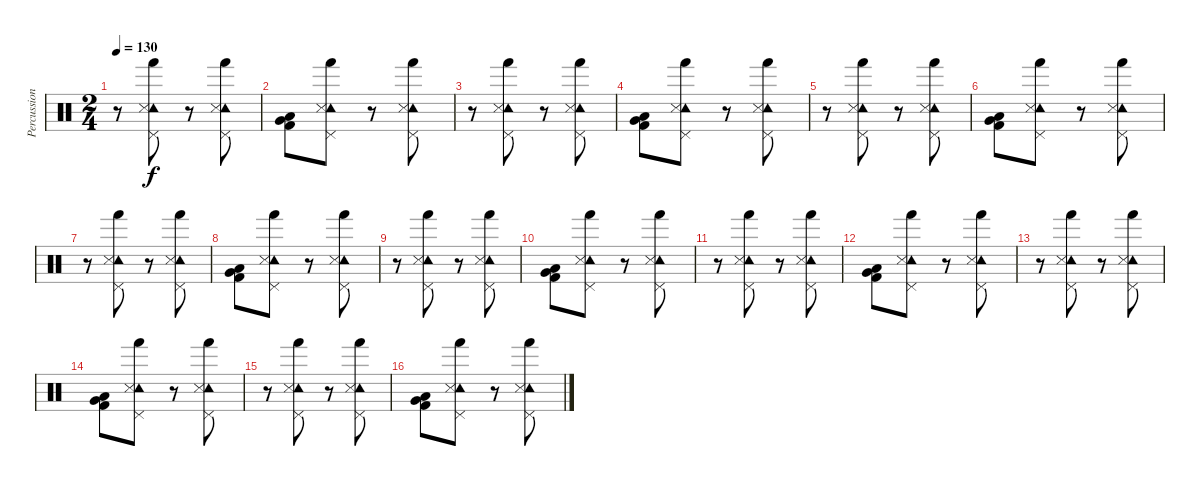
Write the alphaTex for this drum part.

\track ("Percussion" "Percussion") {instrument percussion}
\staff {score}
\articulation defaults
\ts (2 4)
\tempo 130
\clef neutral
\ks c
r.8{dy f} ("Tambourine (hit)" "Snare (side stick) 3" "Pedal Hi-Hat (hit)" "Hand (hit)").8 r.8 ("Tambourine (hit)" "Snare (side stick) 3" "Pedal Hi-Hat (hit)" "Hand (hit)").8 |
("Very Low Tom (hit)" "Low Tom (hit)" "Kick (hit) 2").8 ("Tambourine (hit)" "Snare (side stick) 3" "Pedal Hi-Hat (hit)" "Hand (hit)").8 r.8 ("Tambourine (hit)" "Snare (side stick) 3" "Pedal Hi-Hat (hit)" "Hand (hit)").8 |
r.8 ("Tambourine (hit)" "Snare (side stick) 3" "Pedal Hi-Hat (hit)" "Hand (hit)").8 r.8 ("Tambourine (hit)" "Snare (side stick) 3" "Pedal Hi-Hat (hit)" "Hand (hit)").8 |
("Very Low Tom (hit)" "Low Tom (hit)" "Kick (hit) 2").8 ("Tambourine (hit)" "Snare (side stick) 3" "Pedal Hi-Hat (hit)" "Hand (hit)").8 r.8 ("Tambourine (hit)" "Snare (side stick) 3" "Pedal Hi-Hat (hit)" "Hand (hit)").8 |
r.8 ("Tambourine (hit)" "Snare (side stick) 3" "Pedal Hi-Hat (hit)" "Hand (hit)").8 r.8 ("Tambourine (hit)" "Snare (side stick) 3" "Pedal Hi-Hat (hit)" "Hand (hit)").8 |
("Very Low Tom (hit)" "Low Tom (hit)" "Kick (hit) 2").8 ("Tambourine (hit)" "Snare (side stick) 3" "Pedal Hi-Hat (hit)" "Hand (hit)").8 r.8 ("Tambourine (hit)" "Snare (side stick) 3" "Pedal Hi-Hat (hit)" "Hand (hit)").8 |
r.8 ("Tambourine (hit)" "Snare (side stick) 3" "Pedal Hi-Hat (hit)" "Hand (hit)").8 r.8 ("Tambourine (hit)" "Snare (side stick) 3" "Pedal Hi-Hat (hit)" "Hand (hit)").8 |
("Very Low Tom (hit)" "Low Tom (hit)" "Kick (hit) 2").8 ("Tambourine (hit)" "Snare (side stick) 3" "Pedal Hi-Hat (hit)" "Hand (hit)").8 r.8 ("Tambourine (hit)" "Snare (side stick) 3" "Pedal Hi-Hat (hit)" "Hand (hit)").8 |
r.8 ("Tambourine (hit)" "Snare (side stick) 3" "Pedal Hi-Hat (hit)" "Hand (hit)").8 r.8 ("Tambourine (hit)" "Snare (side stick) 3" "Pedal Hi-Hat (hit)" "Hand (hit)").8 |
("Very Low Tom (hit)" "Low Tom (hit)" "Kick (hit) 2").8 ("Tambourine (hit)" "Snare (side stick) 3" "Pedal Hi-Hat (hit)" "Hand (hit)").8 r.8 ("Tambourine (hit)" "Snare (side stick) 3" "Pedal Hi-Hat (hit)" "Hand (hit)").8 |
r.8 ("Tambourine (hit)" "Snare (side stick) 3" "Pedal Hi-Hat (hit)" "Hand (hit)").8 r.8 ("Tambourine (hit)" "Snare (side stick) 3" "Pedal Hi-Hat (hit)" "Hand (hit)").8 |
("Very Low Tom (hit)" "Low Tom (hit)" "Kick (hit) 2").8 ("Tambourine (hit)" "Snare (side stick) 3" "Pedal Hi-Hat (hit)" "Hand (hit)").8 r.8 ("Tambourine (hit)" "Snare (side stick) 3" "Pedal Hi-Hat (hit)" "Hand (hit)").8 |
r.8 ("Tambourine (hit)" "Snare (side stick) 3" "Pedal Hi-Hat (hit)" "Hand (hit)").8 r.8 ("Tambourine (hit)" "Snare (side stick) 3" "Pedal Hi-Hat (hit)" "Hand (hit)").8 |
("Very Low Tom (hit)" "Low Tom (hit)" "Kick (hit) 2").8 ("Tambourine (hit)" "Snare (side stick) 3" "Pedal Hi-Hat (hit)" "Hand (hit)").8 r.8 ("Tambourine (hit)" "Snare (side stick) 3" "Pedal Hi-Hat (hit)" "Hand (hit)").8 |
r.8 ("Tambourine (hit)" "Snare (side stick) 3" "Pedal Hi-Hat (hit)" "Hand (hit)").8 r.8 ("Tambourine (hit)" "Snare (side stick) 3" "Pedal Hi-Hat (hit)" "Hand (hit)").8 |
("Very Low Tom (hit)" "Low Tom (hit)" "Kick (hit) 2").8 ("Tambourine (hit)" "Snare (side stick) 3" "Pedal Hi-Hat (hit)" "Hand (hit)").8 r.8 ("Tambourine (hit)" "Snare (side stick) 3" "Pedal Hi-Hat (hit)" "Hand (hit)").8
